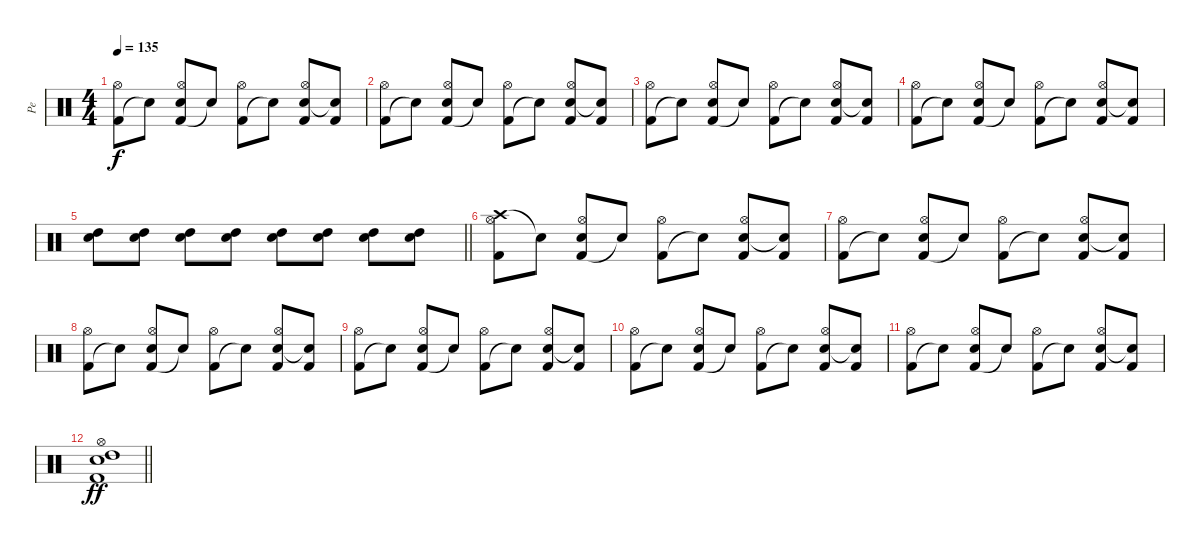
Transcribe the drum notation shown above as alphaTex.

\track ("Pe" "Pe") {instrument percussion}
\staff {score}
\articulation defaults
\ts (4 4)
\tempo 135
\clef neutral
\ks c
("Kick (hit) 2" "Hi-Hat (open)").8{dy f} "Snare (hit)"{t}.8 ("Kick (hit) 2" "Electric Snare (hit)" "Hi-Hat (open)").8 "Snare (hit)"{t}.8 ("Kick (hit) 2" "Hi-Hat (open)").8 "Snare (hit)"{t}.8 ("Kick (hit) 2" "Electric Snare (hit)" "Hi-Hat (open)").8 ("Kick (hit) 2" "Snare (hit)"{t}).8 |
("Kick (hit) 2" "Hi-Hat (open)").8 "Snare (hit)"{t}.8 ("Kick (hit) 2" "Electric Snare (hit)" "Hi-Hat (open)").8 "Snare (hit)"{t}.8 ("Kick (hit) 2" "Hi-Hat (open)").8 "Snare (hit)"{t}.8 ("Kick (hit) 2" "Electric Snare (hit)" "Hi-Hat (open)").8 ("Kick (hit) 2" "Snare (hit)"{t}).8 |
("Kick (hit) 2" "Hi-Hat (open)").8 "Snare (hit)"{t}.8 ("Kick (hit) 2" "Electric Snare (hit)" "Hi-Hat (open)").8 "Snare (hit)"{t}.8 ("Kick (hit) 2" "Hi-Hat (open)").8 "Snare (hit)"{t}.8 ("Kick (hit) 2" "Electric Snare (hit)" "Hi-Hat (open)").8 ("Kick (hit) 2" "Snare (hit)"{t}).8 |
("Kick (hit) 2" "Hi-Hat (open)").8 "Snare (hit)"{t}.8 ("Kick (hit) 2" "Electric Snare (hit)" "Hi-Hat (open)").8 "Snare (hit)"{t}.8 ("Kick (hit) 2" "Hi-Hat (open)").8 "Snare (hit)"{t}.8 ("Kick (hit) 2" "Electric Snare (hit)" "Hi-Hat (open)").8 ("Kick (hit) 2" "Snare (hit)"{t}).8 |
\barLineRight lightlight
("Electric Snare (hit)" "High Tom (hit)").8{volume 5} ("Electric Snare (hit)" "High Tom (hit)").8 ("Electric Snare (hit)" "High Tom (hit)").8{volume 8} ("Electric Snare (hit)" "High Tom (hit)").8 ("Electric Snare (hit)" "High Tom (hit)").8{volume 11} ("Electric Snare (hit)" "High Tom (hit)").8 ("Electric Snare (hit)" "High Tom (hit)").8{volume 13} ("Electric Snare (hit)" "High Tom (hit)").8 |
("Crash high (hit)" "Kick (hit) 2" "Hi-Hat (open)").8 "Snare (hit)"{t}.8 ("Kick (hit) 2" "Electric Snare (hit)" "Hi-Hat (open)").8 "Snare (hit)"{t}.8 ("Kick (hit) 2" "Hi-Hat (open)").8 "Snare (hit)"{t}.8 ("Kick (hit) 2" "Electric Snare (hit)" "Hi-Hat (open)").8 ("Kick (hit) 2" "Snare (hit)"{t}).8 |
("Kick (hit) 2" "Hi-Hat (open)").8 "Snare (hit)"{t}.8 ("Kick (hit) 2" "Electric Snare (hit)" "Hi-Hat (open)").8 "Snare (hit)"{t}.8 ("Kick (hit) 2" "Hi-Hat (open)").8 "Snare (hit)"{t}.8 ("Kick (hit) 2" "Electric Snare (hit)" "Hi-Hat (open)").8 ("Kick (hit) 2" "Snare (hit)"{t}).8 |
("Kick (hit) 2" "Hi-Hat (open)").8 "Snare (hit)"{t}.8 ("Kick (hit) 2" "Electric Snare (hit)" "Hi-Hat (open)").8 "Snare (hit)"{t}.8 ("Kick (hit) 2" "Hi-Hat (open)").8 "Snare (hit)"{t}.8 ("Kick (hit) 2" "Electric Snare (hit)" "Hi-Hat (open)").8 ("Kick (hit) 2" "Snare (hit)"{t}).8 |
("Kick (hit) 2" "Hi-Hat (open)").8 "Snare (hit)"{t}.8 ("Kick (hit) 2" "Electric Snare (hit)" "Hi-Hat (open)").8 "Snare (hit)"{t}.8 ("Kick (hit) 2" "Hi-Hat (open)").8 "Snare (hit)"{t}.8 ("Kick (hit) 2" "Electric Snare (hit)" "Hi-Hat (open)").8 ("Kick (hit) 2" "Snare (hit)"{t}).8 |
("Kick (hit) 2" "Hi-Hat (open)").8 "Snare (hit)"{t}.8 ("Kick (hit) 2" "Electric Snare (hit)" "Hi-Hat (open)").8 "Snare (hit)"{t}.8 ("Kick (hit) 2" "Hi-Hat (open)").8 "Snare (hit)"{t}.8 ("Kick (hit) 2" "Electric Snare (hit)" "Hi-Hat (open)").8 ("Kick (hit) 2" "Snare (hit)"{t}).8 |
("Kick (hit) 2" "Hi-Hat (open)").8 "Snare (hit)"{t}.8 ("Kick (hit) 2" "Electric Snare (hit)" "Hi-Hat (open)").8 "Snare (hit)"{t}.8 ("Kick (hit) 2" "Hi-Hat (open)").8 "Snare (hit)"{t}.8 ("Kick (hit) 2" "Electric Snare (hit)" "Hi-Hat (open)").8 ("Kick (hit) 2" "Snare (hit)"{t}).8 |
\barLineRight lightlight
("Kick (hit) 2" "High Tom (hit)" "Electric Snare (hit)" "Hi-Hat (open)").1{dy ff}
